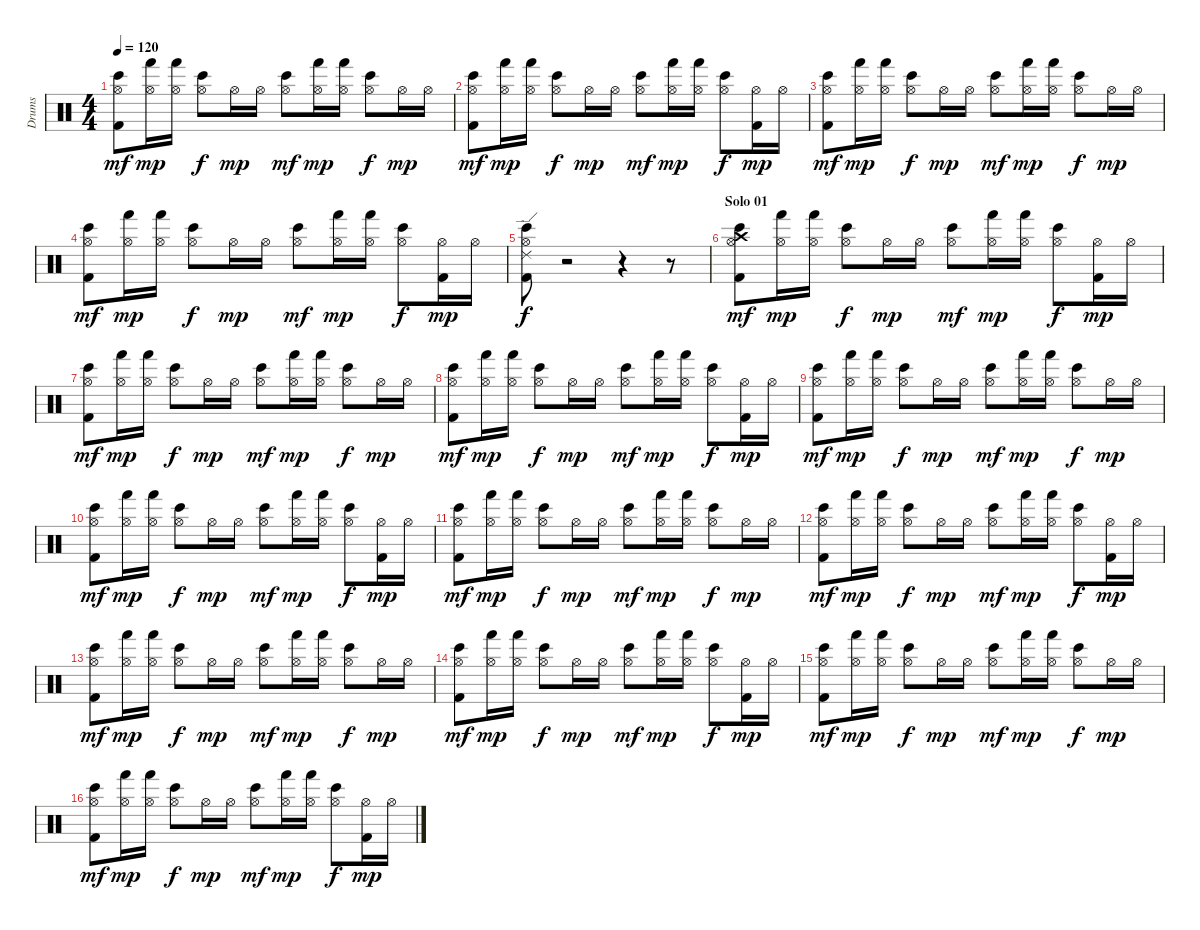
\track ("Drums" "Drums") {instrument percussion}
\staff {score}
\articulation defaults
\ts (4 4)
\tempo 120
\clef neutral
\ks c
("Hi-Hat (open)" "Kick (hit) 2" "Bongo High (hit)").8{dy mf} ("Hi-Hat (open)" "Hand (hit)").16{dy mp} ("Hi-Hat (open)" "Hand (hit)").16 ("Hi-Hat (open)" "Bongo High (hit)").8{dy f} "Hi-Hat (open)".16{dy mp} "Hi-Hat (open)".16 ("Hi-Hat (open)" "Bongo High (hit)").8{dy mf} ("Hi-Hat (open)" "Hand (hit)").16{dy mp} ("Hi-Hat (open)" "Hand (hit)").16 ("Hi-Hat (open)" "Bongo High (hit)").8{dy f} "Hi-Hat (open)".16{dy mp} "Hi-Hat (open)".16 |
("Hi-Hat (open)" "Kick (hit) 2" "Bongo High (hit)").8{dy mf} ("Hi-Hat (open)" "Hand (hit)").16{dy mp} ("Hi-Hat (open)" "Hand (hit)").16 ("Hi-Hat (open)" "Bongo High (hit)").8{dy f} "Hi-Hat (open)".16{dy mp} "Hi-Hat (open)".16 ("Hi-Hat (open)" "Bongo High (hit)").8{dy mf} ("Hi-Hat (open)" "Hand (hit)").16{dy mp} ("Hi-Hat (open)" "Hand (hit)").16 ("Hi-Hat (open)" "Bongo High (hit)").8{dy f} ("Hi-Hat (open)" "Kick (hit) 2").16{dy mp} "Hi-Hat (open)".16 |
("Hi-Hat (open)" "Kick (hit) 2" "Bongo High (hit)").8{dy mf} ("Hi-Hat (open)" "Hand (hit)").16{dy mp} ("Hi-Hat (open)" "Hand (hit)").16 ("Hi-Hat (open)" "Bongo High (hit)").8{dy f} "Hi-Hat (open)".16{dy mp} "Hi-Hat (open)".16 ("Hi-Hat (open)" "Bongo High (hit)").8{dy mf} ("Hi-Hat (open)" "Hand (hit)").16{dy mp} ("Hi-Hat (open)" "Hand (hit)").16 ("Hi-Hat (open)" "Bongo High (hit)").8{dy f} "Hi-Hat (open)".16{dy mp} "Hi-Hat (open)".16 |
("Hi-Hat (open)" "Kick (hit) 2" "Bongo High (hit)").8{dy mf} ("Hi-Hat (open)" "Hand (hit)").16{dy mp} ("Hi-Hat (open)" "Hand (hit)").16 ("Hi-Hat (open)" "Bongo High (hit)").8{dy f} "Hi-Hat (open)".16{dy mp} "Hi-Hat (open)".16 ("Hi-Hat (open)" "Bongo High (hit)").8{dy mf} ("Hi-Hat (open)" "Hand (hit)").16{dy mp} ("Hi-Hat (open)" "Hand (hit)").16 ("Hi-Hat (open)" "Bongo High (hit)").8{dy f} ("Hi-Hat (open)" "Kick (hit) 2").16{dy mp} "Hi-Hat (open)".16 |
("Hi-Hat (open)" "Kick (hit) 2" "Bongo High (hit)" "Ride (edge) 2").8{dy f} r.2 r.4 r.8 |
\section ("" "Solo 01")
("Hi-Hat (open)" "Kick (hit) 2" "Bongo High (hit)" "Crash high (hit)").8{dy mf} ("Hi-Hat (open)" "Hand (hit)").16{dy mp} ("Hi-Hat (open)" "Hand (hit)").16 ("Hi-Hat (open)" "Bongo High (hit)").8{dy f} "Hi-Hat (open)".16{dy mp} "Hi-Hat (open)".16 ("Hi-Hat (open)" "Bongo High (hit)").8{dy mf} ("Hi-Hat (open)" "Hand (hit)").16{dy mp} ("Hi-Hat (open)" "Hand (hit)").16 ("Hi-Hat (open)" "Bongo High (hit)").8{dy f} ("Hi-Hat (open)" "Kick (hit) 2").16{dy mp} "Hi-Hat (open)".16 |
("Hi-Hat (open)" "Kick (hit) 2" "Bongo High (hit)").8{dy mf} ("Hi-Hat (open)" "Hand (hit)").16{dy mp} ("Hi-Hat (open)" "Hand (hit)").16 ("Hi-Hat (open)" "Bongo High (hit)").8{dy f} "Hi-Hat (open)".16{dy mp} "Hi-Hat (open)".16 ("Hi-Hat (open)" "Bongo High (hit)").8{dy mf} ("Hi-Hat (open)" "Hand (hit)").16{dy mp} ("Hi-Hat (open)" "Hand (hit)").16 ("Hi-Hat (open)" "Bongo High (hit)").8{dy f} "Hi-Hat (open)".16{dy mp} "Hi-Hat (open)".16 |
("Hi-Hat (open)" "Kick (hit) 2" "Bongo High (hit)").8{dy mf} ("Hi-Hat (open)" "Hand (hit)").16{dy mp} ("Hi-Hat (open)" "Hand (hit)").16 ("Hi-Hat (open)" "Bongo High (hit)").8{dy f} "Hi-Hat (open)".16{dy mp} "Hi-Hat (open)".16 ("Hi-Hat (open)" "Bongo High (hit)").8{dy mf} ("Hi-Hat (open)" "Hand (hit)").16{dy mp} ("Hi-Hat (open)" "Hand (hit)").16 ("Hi-Hat (open)" "Bongo High (hit)").8{dy f} ("Hi-Hat (open)" "Kick (hit) 2").16{dy mp} "Hi-Hat (open)".16 |
("Hi-Hat (open)" "Kick (hit) 2" "Bongo High (hit)").8{dy mf} ("Hi-Hat (open)" "Hand (hit)").16{dy mp} ("Hi-Hat (open)" "Hand (hit)").16 ("Hi-Hat (open)" "Bongo High (hit)").8{dy f} "Hi-Hat (open)".16{dy mp} "Hi-Hat (open)".16 ("Hi-Hat (open)" "Bongo High (hit)").8{dy mf} ("Hi-Hat (open)" "Hand (hit)").16{dy mp} ("Hi-Hat (open)" "Hand (hit)").16 ("Hi-Hat (open)" "Bongo High (hit)").8{dy f} "Hi-Hat (open)".16{dy mp} "Hi-Hat (open)".16 |
("Hi-Hat (open)" "Kick (hit) 2" "Bongo High (hit)").8{dy mf} ("Hi-Hat (open)" "Hand (hit)").16{dy mp} ("Hi-Hat (open)" "Hand (hit)").16 ("Hi-Hat (open)" "Bongo High (hit)").8{dy f} "Hi-Hat (open)".16{dy mp} "Hi-Hat (open)".16 ("Hi-Hat (open)" "Bongo High (hit)").8{dy mf} ("Hi-Hat (open)" "Hand (hit)").16{dy mp} ("Hi-Hat (open)" "Hand (hit)").16 ("Hi-Hat (open)" "Bongo High (hit)").8{dy f} ("Hi-Hat (open)" "Kick (hit) 2").16{dy mp} "Hi-Hat (open)".16 |
("Hi-Hat (open)" "Kick (hit) 2" "Bongo High (hit)").8{dy mf} ("Hi-Hat (open)" "Hand (hit)").16{dy mp} ("Hi-Hat (open)" "Hand (hit)").16 ("Hi-Hat (open)" "Bongo High (hit)").8{dy f} "Hi-Hat (open)".16{dy mp} "Hi-Hat (open)".16 ("Hi-Hat (open)" "Bongo High (hit)").8{dy mf} ("Hi-Hat (open)" "Hand (hit)").16{dy mp} ("Hi-Hat (open)" "Hand (hit)").16 ("Hi-Hat (open)" "Bongo High (hit)").8{dy f} "Hi-Hat (open)".16{dy mp} "Hi-Hat (open)".16 |
("Hi-Hat (open)" "Kick (hit) 2" "Bongo High (hit)").8{dy mf} ("Hi-Hat (open)" "Hand (hit)").16{dy mp} ("Hi-Hat (open)" "Hand (hit)").16 ("Hi-Hat (open)" "Bongo High (hit)").8{dy f} "Hi-Hat (open)".16{dy mp} "Hi-Hat (open)".16 ("Hi-Hat (open)" "Bongo High (hit)").8{dy mf} ("Hi-Hat (open)" "Hand (hit)").16{dy mp} ("Hi-Hat (open)" "Hand (hit)").16 ("Hi-Hat (open)" "Bongo High (hit)").8{dy f} ("Hi-Hat (open)" "Kick (hit) 2").16{dy mp} "Hi-Hat (open)".16 |
("Hi-Hat (open)" "Kick (hit) 2" "Bongo High (hit)").8{dy mf} ("Hi-Hat (open)" "Hand (hit)").16{dy mp} ("Hi-Hat (open)" "Hand (hit)").16 ("Hi-Hat (open)" "Bongo High (hit)").8{dy f} "Hi-Hat (open)".16{dy mp} "Hi-Hat (open)".16 ("Hi-Hat (open)" "Bongo High (hit)").8{dy mf} ("Hi-Hat (open)" "Hand (hit)").16{dy mp} ("Hi-Hat (open)" "Hand (hit)").16 ("Hi-Hat (open)" "Bongo High (hit)").8{dy f} "Hi-Hat (open)".16{dy mp} "Hi-Hat (open)".16 |
("Hi-Hat (open)" "Kick (hit) 2" "Bongo High (hit)").8{dy mf} ("Hi-Hat (open)" "Hand (hit)").16{dy mp} ("Hi-Hat (open)" "Hand (hit)").16 ("Hi-Hat (open)" "Bongo High (hit)").8{dy f} "Hi-Hat (open)".16{dy mp} "Hi-Hat (open)".16 ("Hi-Hat (open)" "Bongo High (hit)").8{dy mf} ("Hi-Hat (open)" "Hand (hit)").16{dy mp} ("Hi-Hat (open)" "Hand (hit)").16 ("Hi-Hat (open)" "Bongo High (hit)").8{dy f} ("Hi-Hat (open)" "Kick (hit) 2").16{dy mp} "Hi-Hat (open)".16 |
("Hi-Hat (open)" "Kick (hit) 2" "Bongo High (hit)").8{dy mf} ("Hi-Hat (open)" "Hand (hit)").16{dy mp} ("Hi-Hat (open)" "Hand (hit)").16 ("Hi-Hat (open)" "Bongo High (hit)").8{dy f} "Hi-Hat (open)".16{dy mp} "Hi-Hat (open)".16 ("Hi-Hat (open)" "Bongo High (hit)").8{dy mf} ("Hi-Hat (open)" "Hand (hit)").16{dy mp} ("Hi-Hat (open)" "Hand (hit)").16 ("Hi-Hat (open)" "Bongo High (hit)").8{dy f} "Hi-Hat (open)".16{dy mp} "Hi-Hat (open)".16 |
("Hi-Hat (open)" "Kick (hit) 2" "Bongo High (hit)").8{dy mf} ("Hi-Hat (open)" "Hand (hit)").16{dy mp} ("Hi-Hat (open)" "Hand (hit)").16 ("Hi-Hat (open)" "Bongo High (hit)").8{dy f} "Hi-Hat (open)".16{dy mp} "Hi-Hat (open)".16 ("Hi-Hat (open)" "Bongo High (hit)").8{dy mf} ("Hi-Hat (open)" "Hand (hit)").16{dy mp} ("Hi-Hat (open)" "Hand (hit)").16 ("Hi-Hat (open)" "Bongo High (hit)").8{dy f} ("Hi-Hat (open)" "Kick (hit) 2").16{dy mp} "Hi-Hat (open)".16
